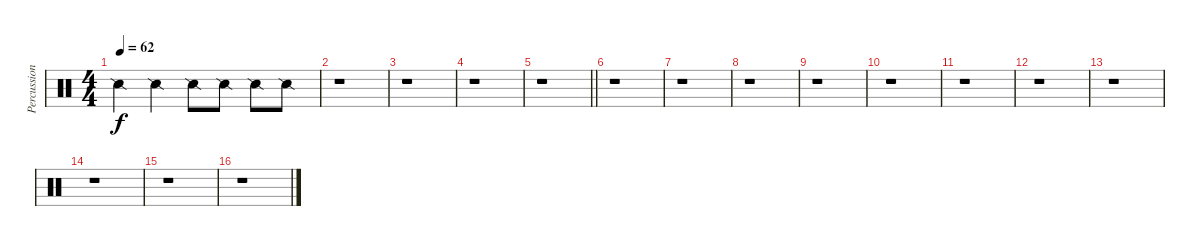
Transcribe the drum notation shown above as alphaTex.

\track ("Percussion" "Percussion") {instrument percussion}
\staff {score}
\articulation defaults
\ts (4 4)
\tempo 62
\clef neutral
\ks c "Snare (side stick) 2".4{dy f} "Snare (side stick) 2".4 "Snare (side stick) 2".8 "Snare (side stick) 2".8 "Snare (side stick) 2".8 "Snare (side stick) 2".8
|
r.1 |
r.1 |
r.1 |
\barLineRight lightlight
r.1 |
r.1 |
r.1 |
r.1 |
r.1 |
r.1 |
r.1 |
r.1 |
r.1 |
r.1 |
r.1 |
r.1
